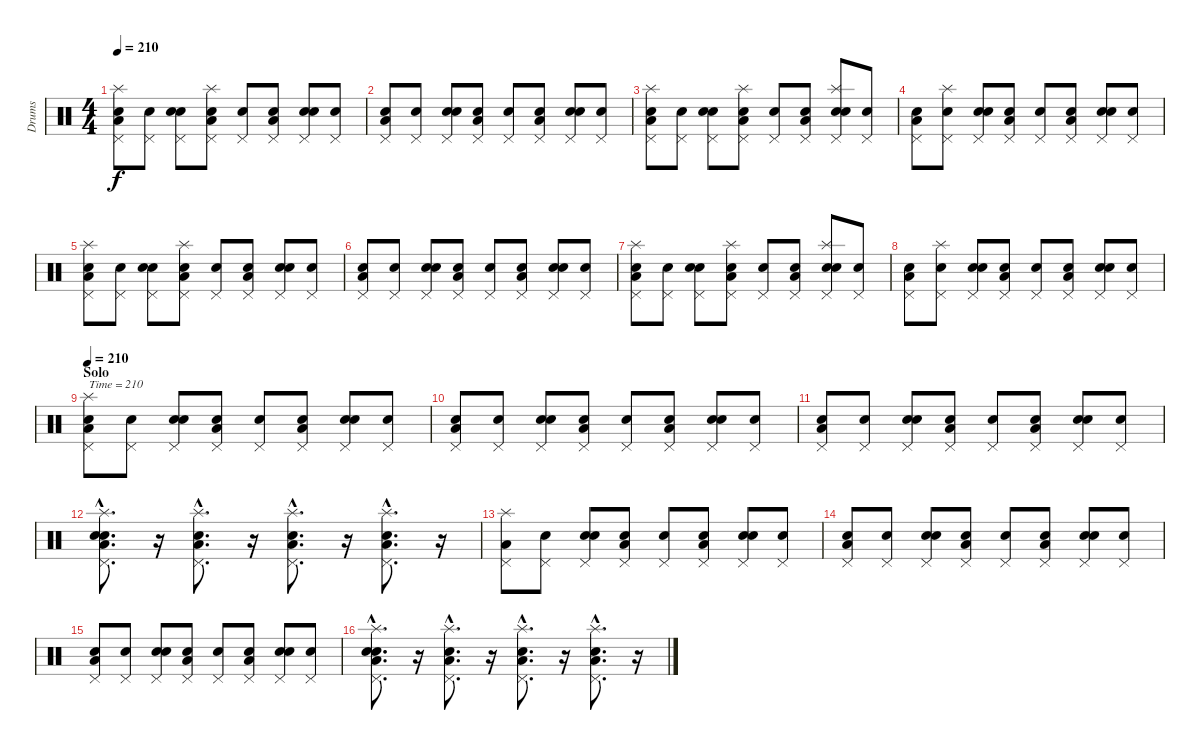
\track ("Drums" "Drums") {instrument percussion}
\staff {score}
\articulation defaults
\ts (4 4)
\tempo 210
\clef neutral
\ks c
("Snare (hit)" "Low Floor Tom (hit)" "Pedal Hi-Hat (hit)" "Splash (hit)").8{dy f} ("Snare (hit)" "Pedal Hi-Hat (hit)").8 ("Snare (hit)" "Electric Snare (hit)" "Pedal Hi-Hat (hit)").8 ("Snare (hit)" "Low Floor Tom (hit)" "Pedal Hi-Hat (hit)" "Splash (hit)").8 ("Snare (hit)" "Pedal Hi-Hat (hit)").8 ("Snare (hit)" "Low Floor Tom (hit)" "Pedal Hi-Hat (hit)").8 ("Snare (hit)" "Electric Snare (hit)" "Pedal Hi-Hat (hit)").8 ("Snare (hit)" "Pedal Hi-Hat (hit)").8 |
("Snare (hit)" "Low Floor Tom (hit)" "Pedal Hi-Hat (hit)").8 ("Snare (hit)" "Pedal Hi-Hat (hit)").8 ("Snare (hit)" "Electric Snare (hit)" "Pedal Hi-Hat (hit)").8 ("Snare (hit)" "Low Floor Tom (hit)" "Pedal Hi-Hat (hit)").8 ("Snare (hit)" "Pedal Hi-Hat (hit)").8 ("Snare (hit)" "Low Floor Tom (hit)" "Pedal Hi-Hat (hit)").8 ("Snare (hit)" "Electric Snare (hit)" "Pedal Hi-Hat (hit)").8 ("Snare (hit)" "Pedal Hi-Hat (hit)").8 |
("Snare (hit)" "Low Floor Tom (hit)" "Pedal Hi-Hat (hit)" "Splash (hit)").8 ("Snare (hit)" "Pedal Hi-Hat (hit)").8 ("Snare (hit)" "Electric Snare (hit)" "Pedal Hi-Hat (hit)").8 ("Snare (hit)" "Low Floor Tom (hit)" "Pedal Hi-Hat (hit)" "Splash (hit)").8 ("Snare (hit)" "Pedal Hi-Hat (hit)").8 ("Snare (hit)" "Low Floor Tom (hit)" "Pedal Hi-Hat (hit)").8 ("Snare (hit)" "Electric Snare (hit)" "Pedal Hi-Hat (hit)" "Splash (hit)").8 ("Snare (hit)" "Pedal Hi-Hat (hit)").8 |
("Snare (hit)" "Low Floor Tom (hit)" "Pedal Hi-Hat (hit)").8 ("Snare (hit)" "Pedal Hi-Hat (hit)" "Splash (hit)").8 ("Snare (hit)" "Electric Snare (hit)" "Pedal Hi-Hat (hit)").8 ("Snare (hit)" "Low Floor Tom (hit)" "Pedal Hi-Hat (hit)").8 ("Snare (hit)" "Pedal Hi-Hat (hit)").8 ("Snare (hit)" "Low Floor Tom (hit)" "Pedal Hi-Hat (hit)").8 ("Snare (hit)" "Electric Snare (hit)" "Pedal Hi-Hat (hit)").8 ("Snare (hit)" "Pedal Hi-Hat (hit)").8 |
("Snare (hit)" "Low Floor Tom (hit)" "Pedal Hi-Hat (hit)" "Splash (hit)").8 ("Snare (hit)" "Pedal Hi-Hat (hit)").8 ("Snare (hit)" "Electric Snare (hit)" "Pedal Hi-Hat (hit)").8 ("Snare (hit)" "Low Floor Tom (hit)" "Pedal Hi-Hat (hit)" "Splash (hit)").8 ("Snare (hit)" "Pedal Hi-Hat (hit)").8 ("Snare (hit)" "Low Floor Tom (hit)" "Pedal Hi-Hat (hit)").8 ("Snare (hit)" "Electric Snare (hit)" "Pedal Hi-Hat (hit)").8 ("Snare (hit)" "Pedal Hi-Hat (hit)").8 |
("Snare (hit)" "Low Floor Tom (hit)" "Pedal Hi-Hat (hit)").8 ("Snare (hit)" "Pedal Hi-Hat (hit)").8 ("Snare (hit)" "Electric Snare (hit)" "Pedal Hi-Hat (hit)").8 ("Snare (hit)" "Low Floor Tom (hit)" "Pedal Hi-Hat (hit)").8 ("Snare (hit)" "Pedal Hi-Hat (hit)").8 ("Snare (hit)" "Low Floor Tom (hit)" "Pedal Hi-Hat (hit)").8 ("Snare (hit)" "Electric Snare (hit)" "Pedal Hi-Hat (hit)").8 ("Snare (hit)" "Pedal Hi-Hat (hit)").8 |
("Snare (hit)" "Low Floor Tom (hit)" "Pedal Hi-Hat (hit)" "Splash (hit)").8 ("Snare (hit)" "Pedal Hi-Hat (hit)").8 ("Snare (hit)" "Electric Snare (hit)" "Pedal Hi-Hat (hit)").8 ("Snare (hit)" "Low Floor Tom (hit)" "Pedal Hi-Hat (hit)" "Splash (hit)").8 ("Snare (hit)" "Pedal Hi-Hat (hit)").8 ("Snare (hit)" "Low Floor Tom (hit)" "Pedal Hi-Hat (hit)").8 ("Snare (hit)" "Electric Snare (hit)" "Pedal Hi-Hat (hit)" "Splash (hit)").8 ("Snare (hit)" "Pedal Hi-Hat (hit)").8 |
("Snare (hit)" "Low Floor Tom (hit)" "Pedal Hi-Hat (hit)").8 ("Snare (hit)" "Pedal Hi-Hat (hit)" "Splash (hit)").8 ("Snare (hit)" "Electric Snare (hit)" "Pedal Hi-Hat (hit)").8 ("Snare (hit)" "Low Floor Tom (hit)" "Pedal Hi-Hat (hit)").8 ("Snare (hit)" "Pedal Hi-Hat (hit)").8 ("Snare (hit)" "Low Floor Tom (hit)" "Pedal Hi-Hat (hit)").8 ("Snare (hit)" "Electric Snare (hit)" "Pedal Hi-Hat (hit)").8 ("Snare (hit)" "Pedal Hi-Hat (hit)").8 |
\section ("" "Solo")
\tempo 210
("Snare (hit)" "Low Floor Tom (hit)" "Pedal Hi-Hat (hit)" "Splash (hit)").8{txt "Time = 210"} ("Snare (hit)" "Pedal Hi-Hat (hit)").8 ("Snare (hit)" "Electric Snare (hit)" "Pedal Hi-Hat (hit)").8 ("Snare (hit)" "Low Floor Tom (hit)" "Pedal Hi-Hat (hit)").8 ("Snare (hit)" "Pedal Hi-Hat (hit)").8 ("Snare (hit)" "Low Floor Tom (hit)" "Pedal Hi-Hat (hit)").8 ("Snare (hit)" "Electric Snare (hit)" "Pedal Hi-Hat (hit)").8 ("Snare (hit)" "Pedal Hi-Hat (hit)").8 |
("Snare (hit)" "Low Floor Tom (hit)" "Pedal Hi-Hat (hit)").8 ("Snare (hit)" "Pedal Hi-Hat (hit)").8 ("Snare (hit)" "Electric Snare (hit)" "Pedal Hi-Hat (hit)").8 ("Snare (hit)" "Low Floor Tom (hit)" "Pedal Hi-Hat (hit)").8 ("Snare (hit)" "Pedal Hi-Hat (hit)").8 ("Snare (hit)" "Low Floor Tom (hit)" "Pedal Hi-Hat (hit)").8 ("Snare (hit)" "Electric Snare (hit)" "Pedal Hi-Hat (hit)").8 ("Snare (hit)" "Pedal Hi-Hat (hit)").8 |
("Snare (hit)" "Low Floor Tom (hit)" "Pedal Hi-Hat (hit)").8 ("Snare (hit)" "Pedal Hi-Hat (hit)").8 ("Snare (hit)" "Electric Snare (hit)" "Pedal Hi-Hat (hit)").8 ("Snare (hit)" "Low Floor Tom (hit)" "Pedal Hi-Hat (hit)").8 ("Snare (hit)" "Pedal Hi-Hat (hit)").8 ("Snare (hit)" "Low Floor Tom (hit)" "Pedal Hi-Hat (hit)").8 ("Snare (hit)" "Electric Snare (hit)" "Pedal Hi-Hat (hit)").8 ("Snare (hit)" "Pedal Hi-Hat (hit)").8 |
("Snare (hit)"{hac} "Electric Snare (hit)"{hac} "Low Floor Tom (hit)"{hac} "Pedal Hi-Hat (hit)"{hac} "Splash (hit)"{hac}).8{d} r.16 ("Electric Snare (hit)"{hac} "Low Floor Tom (hit)"{hac} "Pedal Hi-Hat (hit)"{hac} "Splash (hit)"{hac}).8{d} r.16 ("Electric Snare (hit)"{hac} "Low Floor Tom (hit)"{hac} "Pedal Hi-Hat (hit)"{hac} "Splash (hit)"{hac}).8{d} r.16 ("Electric Snare (hit)"{hac} "Low Floor Tom (hit)"{hac} "Pedal Hi-Hat (hit)"{hac} "Splash (hit)"{hac}).8{d} r.16 |
("Low Floor Tom (hit)" "Pedal Hi-Hat (hit)" "Splash (hit)").8 ("Snare (hit)" "Pedal Hi-Hat (hit)").8 ("Snare (hit)" "Electric Snare (hit)" "Pedal Hi-Hat (hit)").8 ("Snare (hit)" "Low Floor Tom (hit)" "Pedal Hi-Hat (hit)").8 ("Snare (hit)" "Pedal Hi-Hat (hit)").8 ("Snare (hit)" "Low Floor Tom (hit)" "Pedal Hi-Hat (hit)").8 ("Snare (hit)" "Electric Snare (hit)" "Pedal Hi-Hat (hit)").8 ("Snare (hit)" "Pedal Hi-Hat (hit)").8 |
("Snare (hit)" "Low Floor Tom (hit)" "Pedal Hi-Hat (hit)").8 ("Snare (hit)" "Pedal Hi-Hat (hit)").8 ("Snare (hit)" "Electric Snare (hit)" "Pedal Hi-Hat (hit)").8 ("Snare (hit)" "Low Floor Tom (hit)" "Pedal Hi-Hat (hit)").8 ("Snare (hit)" "Pedal Hi-Hat (hit)").8 ("Snare (hit)" "Low Floor Tom (hit)" "Pedal Hi-Hat (hit)").8 ("Snare (hit)" "Electric Snare (hit)" "Pedal Hi-Hat (hit)").8 ("Snare (hit)" "Pedal Hi-Hat (hit)").8 |
("Snare (hit)" "Low Floor Tom (hit)" "Pedal Hi-Hat (hit)").8 ("Snare (hit)" "Pedal Hi-Hat (hit)").8 ("Snare (hit)" "Electric Snare (hit)" "Pedal Hi-Hat (hit)").8 ("Snare (hit)" "Low Floor Tom (hit)" "Pedal Hi-Hat (hit)").8 ("Snare (hit)" "Pedal Hi-Hat (hit)").8 ("Snare (hit)" "Low Floor Tom (hit)" "Pedal Hi-Hat (hit)").8 ("Snare (hit)" "Electric Snare (hit)" "Pedal Hi-Hat (hit)").8 ("Snare (hit)" "Pedal Hi-Hat (hit)").8 |
("Snare (hit)"{hac} "Electric Snare (hit)"{hac} "Low Floor Tom (hit)"{hac} "Pedal Hi-Hat (hit)"{hac} "Splash (hit)"{hac}).8{d} r.16 ("Electric Snare (hit)"{hac} "Low Floor Tom (hit)"{hac} "Pedal Hi-Hat (hit)"{hac} "Splash (hit)"{hac}).8{d} r.16 ("Electric Snare (hit)"{hac} "Low Floor Tom (hit)"{hac} "Pedal Hi-Hat (hit)"{hac} "Splash (hit)"{hac}).8{d} r.16 ("Electric Snare (hit)"{hac} "Low Floor Tom (hit)"{hac} "Pedal Hi-Hat (hit)"{hac} "Splash (hit)"{hac}).8{d} r.16
